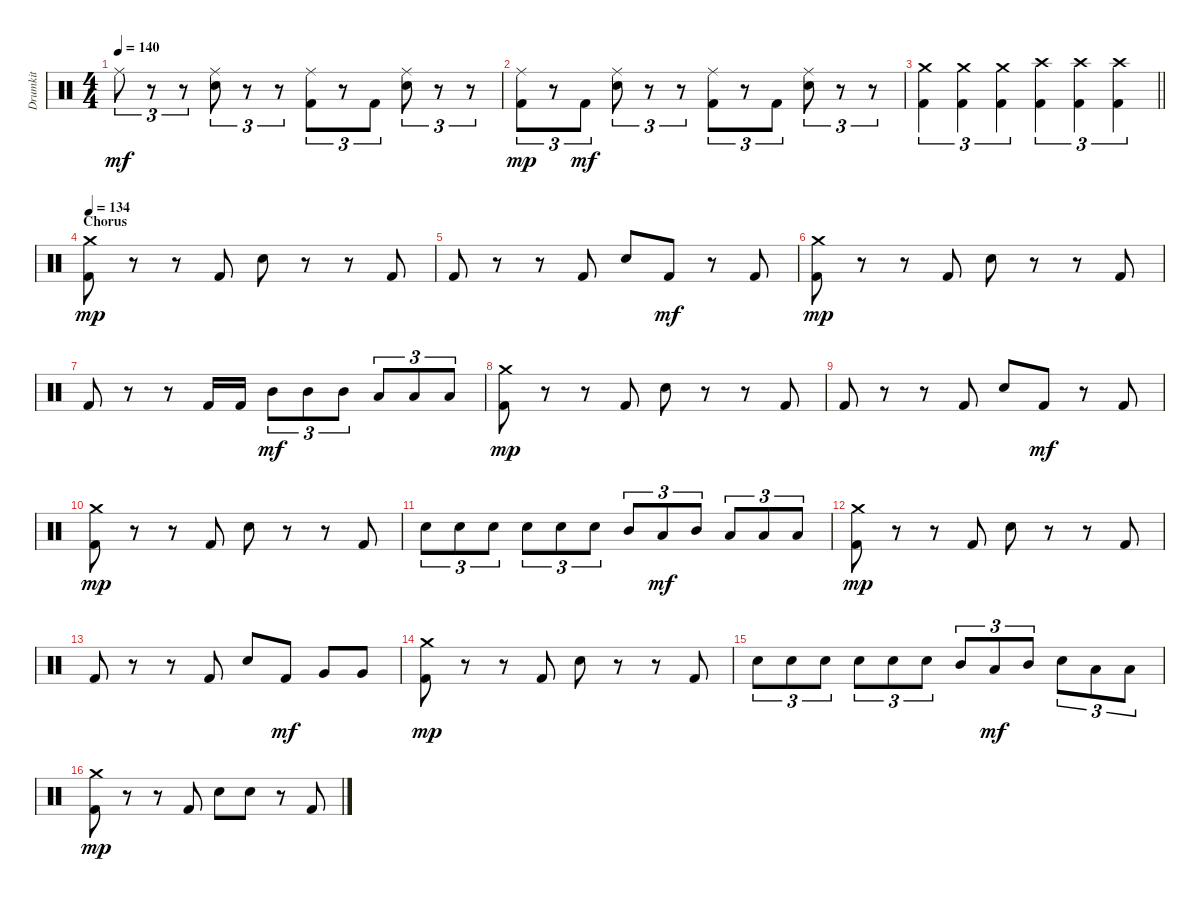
\track ("Drumkit" "Drumkit") {instrument percussion}
\staff {score}
\articulation defaults
\ts (4 4)
\tempo 140
\clef neutral
\ks c "Ride (middle)".8{tu (3 2) dy mf}
r.8{tu (3 2)} r.8{tu (3 2)} ("Snare (hit) 2" "Ride (middle)").8{tu (3 2)} r.8{tu (3 2)} r.8{tu (3 2)} ("Kick (hit) 2" "Ride (middle)").8{tu (3 2)} r.8{tu (3 2)} "Kick (hit) 2".8{tu (3 2)} ("Snare (hit) 2" "Ride (middle)").8{tu (3 2)} r.8{tu (3 2)} r.8{tu (3 2)} |
("Kick (hit) 2" "Ride (middle)").8{tu (3 2) dy mp} r.8{tu (3 2)} "Kick (hit) 2".8{tu (3 2) dy mf} ("Snare (hit) 2" "Ride (middle)").8{tu (3 2)} r.8{tu (3 2)} r.8{tu (3 2)} ("Ride (middle)" "Kick (hit) 2").8{tu (3 2)} r.8{tu (3 2)} "Kick (hit) 2".8{tu (3 2)} ("Snare (hit) 2" "Ride (middle)").8{tu (3 2)} r.8{tu (3 2)} r.8{tu (3 2)} |
\barLineRight lightlight
("Kick (hit) 2" "Crash medium (hit)").4{tu (3 2)} ("Kick (hit) 2" "Crash medium (hit)").4{tu (3 2)} ("Kick (hit) 2" "Crash medium (hit)").4{tu (3 2)} ("Kick (hit) 2" "Crash high (hit)").4{tu (3 2)} ("Kick (hit) 2" "Crash high (hit)").4{tu (3 2)} ("Kick (hit) 2" "Crash high (hit)").4{tu (3 2)} |
\section ("" "Chorus")
\tempo 134
("Kick (hit) 2" "Crash medium (hit)").8{dy mp} r.8 r.8 "Kick (hit) 2".8 "Snare (hit) 2".8 r.8 r.8 "Kick (hit) 2".8 |
"Kick (hit) 2".8 r.8 r.8 "Kick (hit) 2".8 "Snare (hit) 2".8 "Kick (hit) 2".8{dy mf} r.8 "Kick (hit) 2".8 |
("Kick (hit) 2" "Crash medium (hit)").8{dy mp} r.8 r.8 "Kick (hit) 2".8 "Snare (hit) 2".8 r.8 r.8 "Kick (hit) 2".8 |
"Kick (hit) 2".8 r.8 r.8 "Kick (hit) 2".16 "Kick (hit) 2".16 "Mid Tom (hit)".8{tu (3 2) dy mf} "Mid Tom (hit)".8{tu (3 2)} "Mid Tom (hit)".8{tu (3 2)} "Low Tom (hit)".8{tu (3 2)} "Low Tom (hit)".8{tu (3 2)} "Low Tom (hit)".8{tu (3 2)} |
("Kick (hit) 2" "Crash medium (hit)").8{dy mp} r.8 r.8 "Kick (hit) 2".8 "Snare (hit) 2".8 r.8 r.8 "Kick (hit) 2".8 |
"Kick (hit) 2".8 r.8 r.8 "Kick (hit) 2".8 "Snare (hit) 2".8 "Kick (hit) 2".8{dy mf} r.8 "Kick (hit) 2".8 |
("Kick (hit) 2" "Crash medium (hit)").8{dy mp} r.8 r.8 "Kick (hit) 2".8 "Snare (hit) 2".8 r.8 r.8 "Kick (hit) 2".8 |
"Snare (hit) 2".8{tu (3 2)} "Snare (hit) 2".8{tu (3 2)} "Snare (hit) 2".8{tu (3 2)} "Snare (hit) 2".8{tu (3 2)} "Snare (hit) 2".8{tu (3 2)} "Snare (hit) 2".8{tu (3 2)} "Mid Tom (hit)".8{tu (3 2)} "Low Tom (hit)".8{tu (3 2) dy mf} "Mid Tom (hit)".8{tu (3 2)} "Low Tom (hit)".8{tu (3 2)} "Low Tom (hit)".8{tu (3 2)} "Low Tom (hit)".8{tu (3 2)} |
("Kick (hit) 2" "Crash medium (hit)").8{dy mp} r.8 r.8 "Kick (hit) 2".8 "Snare (hit) 2".8 r.8 r.8 "Kick (hit) 2".8 |
"Kick (hit) 2".8 r.8 r.8 "Kick (hit) 2".8 "Snare (hit) 2".8 "Kick (hit) 2".8{dy mf} "Very Low Tom (hit)".8 "Very Low Tom (hit)".8 |
("Kick (hit) 2" "Crash medium (hit)").8{dy mp} r.8 r.8 "Kick (hit) 2".8 "Snare (hit) 2".8 r.8 r.8 "Kick (hit) 2".8 |
"Snare (hit) 2".8{tu (3 2)} "Snare (hit) 2".8{tu (3 2)} "Snare (hit) 2".8{tu (3 2)} "Snare (hit) 2".8{tu (3 2)} "Snare (hit) 2".8{tu (3 2)} "Snare (hit) 2".8{tu (3 2)} "Mid Tom (hit)".8{tu (3 2)} "Low Tom (hit)".8{tu (3 2) dy mf} "Mid Tom (hit)".8{tu (3 2)} "Snare (hit) 2".8{tu (3 2)} "Low Tom (hit)".8{tu (3 2)} "Low Tom (hit)".8{tu (3 2)} |
("Kick (hit) 2" "Crash medium (hit)").8{dy mp} r.8 r.8 "Kick (hit) 2".8 "Snare (hit) 2".8 "Snare (hit) 2".8 r.8 "Kick (hit) 2".8
